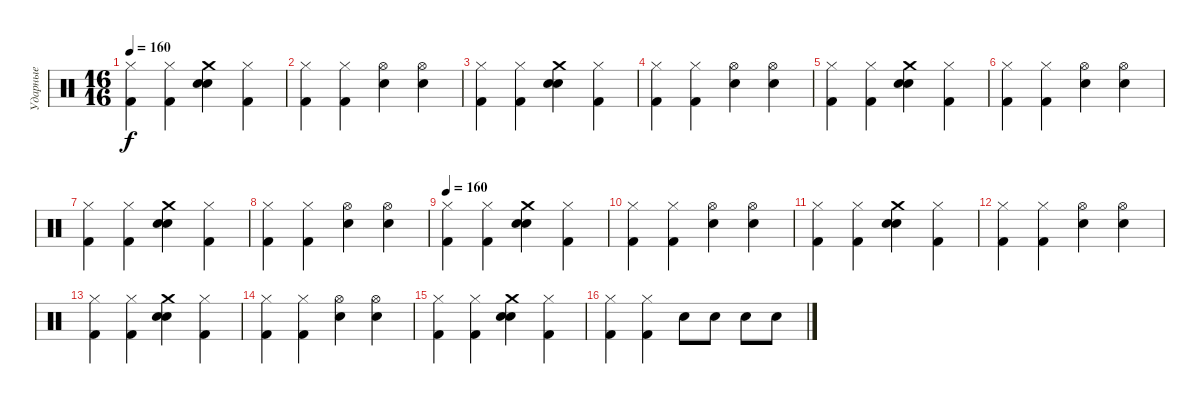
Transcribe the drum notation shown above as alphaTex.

\track ("Ударные" "Ударные") {instrument percussion}
\staff {score}
\articulation defaults
\ts (16 16)
\tempo 160
\clef neutral
\ks c
("Hi-Hat (closed)" "Kick (hit) 2").4{dy f} ("Hi-Hat (closed)" "Kick (hit) 2").4 ("Crash medium (hit)" "Snare (hit) 2" "Electric Snare (hit)").4 ("Hi-Hat (closed)" "Kick (hit) 2").4 |
("Hi-Hat (closed)" "Kick (hit) 2").4 ("Hi-Hat (closed)" "Kick (hit) 2").4 ("Hi-Hat (open)" "Electric Snare (hit)").4 ("Hi-Hat (open)" "Electric Snare (hit)").4 |
("Hi-Hat (closed)" "Kick (hit) 2").4 ("Hi-Hat (closed)" "Kick (hit) 2").4 ("Crash medium (hit)" "Snare (hit) 2" "Electric Snare (hit)").4 ("Hi-Hat (closed)" "Kick (hit) 2").4 |
("Hi-Hat (closed)" "Kick (hit) 2").4 ("Hi-Hat (closed)" "Kick (hit) 2").4 ("Hi-Hat (open)" "Electric Snare (hit)").4 ("Hi-Hat (open)" "Electric Snare (hit)").4 |
("Hi-Hat (closed)" "Kick (hit) 2").4 ("Hi-Hat (closed)" "Kick (hit) 2").4 ("Crash medium (hit)" "Snare (hit) 2" "Electric Snare (hit)").4 ("Hi-Hat (closed)" "Kick (hit) 2").4 |
("Hi-Hat (closed)" "Kick (hit) 2").4 ("Hi-Hat (closed)" "Kick (hit) 2").4 ("Hi-Hat (open)" "Electric Snare (hit)").4 ("Hi-Hat (open)" "Electric Snare (hit)").4 |
("Hi-Hat (closed)" "Kick (hit) 2").4 ("Hi-Hat (closed)" "Kick (hit) 2").4 ("Crash medium (hit)" "Snare (hit) 2" "Electric Snare (hit)").4 ("Hi-Hat (closed)" "Kick (hit) 2").4 |
("Hi-Hat (closed)" "Kick (hit) 2").4 ("Hi-Hat (closed)" "Kick (hit) 2").4 ("Hi-Hat (open)" "Electric Snare (hit)").4 ("Hi-Hat (open)" "Electric Snare (hit)").4 |
\tempo 160
("Hi-Hat (closed)" "Kick (hit) 2").4 ("Hi-Hat (closed)" "Kick (hit) 2").4 ("Crash medium (hit)" "Snare (hit) 2" "Electric Snare (hit)").4 ("Hi-Hat (closed)" "Kick (hit) 2").4 |
("Hi-Hat (closed)" "Kick (hit) 2").4 ("Hi-Hat (closed)" "Kick (hit) 2").4 ("Hi-Hat (open)" "Electric Snare (hit)").4 ("Hi-Hat (open)" "Electric Snare (hit)").4 |
("Hi-Hat (closed)" "Kick (hit) 2").4 ("Hi-Hat (closed)" "Kick (hit) 2").4 ("Crash medium (hit)" "Snare (hit) 2" "Electric Snare (hit)").4 ("Hi-Hat (closed)" "Kick (hit) 2").4 |
("Hi-Hat (closed)" "Kick (hit) 2").4 ("Hi-Hat (closed)" "Kick (hit) 2").4 ("Hi-Hat (open)" "Electric Snare (hit)").4 ("Hi-Hat (open)" "Electric Snare (hit)").4 |
("Hi-Hat (closed)" "Kick (hit) 2").4 ("Hi-Hat (closed)" "Kick (hit) 2").4 ("Crash medium (hit)" "Snare (hit) 2" "Electric Snare (hit)").4 ("Hi-Hat (closed)" "Kick (hit) 2").4 |
("Hi-Hat (closed)" "Kick (hit) 2").4 ("Hi-Hat (closed)" "Kick (hit) 2").4 ("Hi-Hat (open)" "Electric Snare (hit)").4 ("Hi-Hat (open)" "Electric Snare (hit)").4 |
("Hi-Hat (closed)" "Kick (hit) 2").4 ("Hi-Hat (closed)" "Kick (hit) 2").4 ("Crash medium (hit)" "Snare (hit) 2" "Electric Snare (hit)").4 ("Hi-Hat (closed)" "Kick (hit) 2").4 |
("Hi-Hat (closed)" "Kick (hit) 2").4 ("Hi-Hat (closed)" "Kick (hit) 2").4 "Electric Snare (hit)".8 "Electric Snare (hit)".8 "Electric Snare (hit)".8 "Electric Snare (hit)".8
